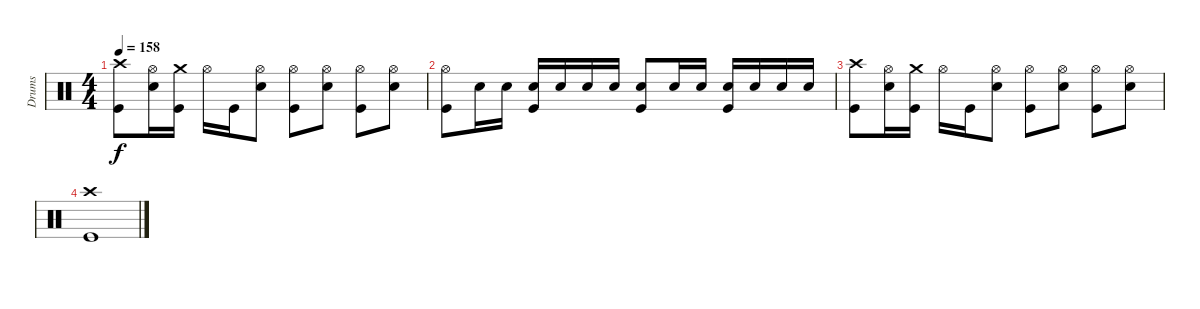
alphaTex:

\track ("Drums" "Drums") {instrument percussion}
\staff {score}
\articulation defaults
\ts (4 4)
\tempo 158
\clef neutral
\ks c
("Crash high (hit)" "Kick (hit)").8{dy f} ("Hi-Hat (open)" "Snare (hit) 2").16 ("Crash medium (hit)" "Kick (hit)").16 "Hi-Hat (open)".16 "Kick (hit)".16 ("Hi-Hat (open)" "Snare (hit) 2").8 ("Hi-Hat (open)" "Kick (hit)").8 ("Hi-Hat (open)" "Snare (hit) 2").8 ("Hi-Hat (open)" "Kick (hit)").8 ("Hi-Hat (open)" "Snare (hit) 2").8 |
("Hi-Hat (open)" "Kick (hit)").8 "Snare (hit) 2".16 "Snare (hit) 2".16 ("Kick (hit)" "Snare (hit) 2").16 "Snare (hit) 2".16 "Snare (hit) 2".16 "Snare (hit) 2".16 ("Kick (hit)" "Snare (hit) 2").8 "Snare (hit) 2".16 "Snare (hit) 2".16 ("Kick (hit)" "Snare (hit) 2").16 "Snare (hit) 2".16 "Snare (hit) 2".16 "Snare (hit) 2".16 |
("Crash high (hit)" "Kick (hit)").8 ("Hi-Hat (open)" "Snare (hit) 2").16 ("Crash medium (hit)" "Kick (hit)").16 "Hi-Hat (open)".16 "Kick (hit)".16 ("Hi-Hat (open)" "Snare (hit) 2").8 ("Hi-Hat (open)" "Kick (hit)").8 ("Hi-Hat (open)" "Snare (hit) 2").8 ("Hi-Hat (open)" "Kick (hit)").8 ("Hi-Hat (open)" "Snare (hit) 2").8 |
("Crash high (hit)" "Kick (hit)").1
